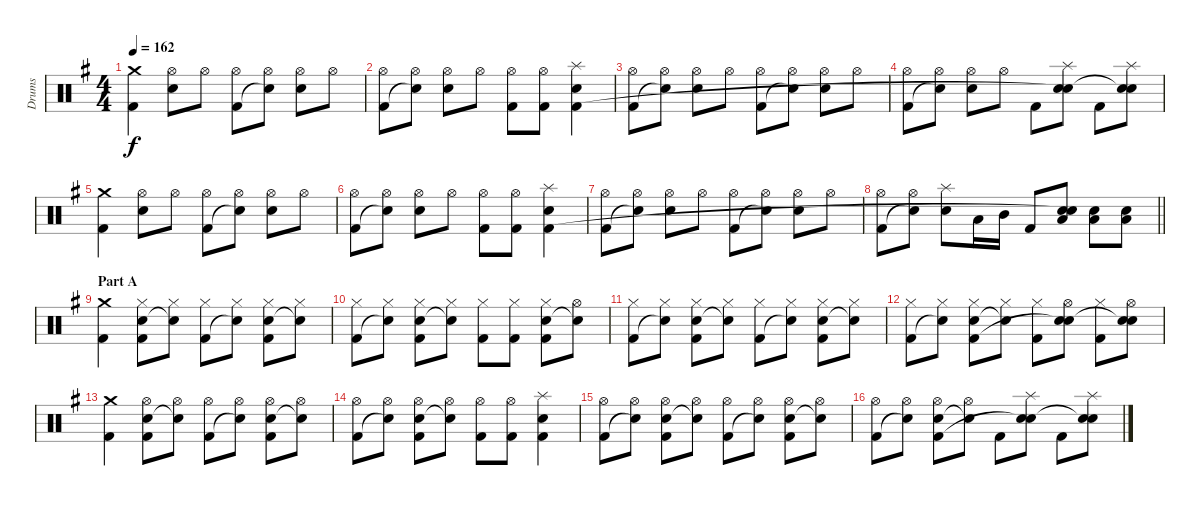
\track ("Drums" "Drums") {instrument percussion}
\staff {score}
\articulation defaults
\ts (4 4)
\tempo 162
\clef neutral
\ks g
("Crash medium (hit)" "Kick (hit) 2").4{dy f} ("Hi-Hat (open)" "Electric Snare (hit)").8 "Hi-Hat (open)".8 ("Hi-Hat (open)" "Kick (hit) 2").8 ("Hi-Hat (open)" "Snare (hit)"{t}).8 ("Hi-Hat (open)" "Electric Snare (hit)").8 "Hi-Hat (open)".8 |
("Hi-Hat (open)" "Kick (hit) 2").8 ("Hi-Hat (open)" "Snare (hit)"{t}).8 ("Hi-Hat (open)" "Electric Snare (hit)").8 "Hi-Hat (open)".8 ("Hi-Hat (open)" "Kick (hit) 2").8 ("Hi-Hat (open)" "Kick (hit) 2").8 ("Splash (hit)" "Electric Snare (hit)" "Kick (hit) 2").4 |
("Hi-Hat (open)" "Kick (hit) 2").8 ("Hi-Hat (open)" "Snare (hit)"{t}).8 ("Hi-Hat (open)" "Electric Snare (hit)").8 "Hi-Hat (open)".8 ("Hi-Hat (open)" "Kick (hit) 2").8 ("Hi-Hat (open)" "Snare (hit)"{t}).8 ("Hi-Hat (open)" "Electric Snare (hit)").8 "Hi-Hat (open)".8 |
("Hi-Hat (open)" "Kick (hit) 2").8 ("Hi-Hat (open)" "Snare (hit)"{t}).8 ("Hi-Hat (open)" "Electric Snare (hit)").8 "Hi-Hat (open)".8 "Kick (hit) 2".8 ("Splash (hit)" "Electric Snare (hit)" "Snare (hit)"{t}).8 "Kick (hit) 2".8 ("Splash (hit)" "Electric Snare (hit)" "Snare (hit)"{t}).8 |
("Crash medium (hit)" "Kick (hit) 2").4 ("Hi-Hat (open)" "Electric Snare (hit)").8 "Hi-Hat (open)".8 ("Hi-Hat (open)" "Kick (hit) 2").8 ("Hi-Hat (open)" "Snare (hit)"{t}).8 ("Hi-Hat (open)" "Electric Snare (hit)").8 "Hi-Hat (open)".8 |
("Hi-Hat (open)" "Kick (hit) 2").8 ("Hi-Hat (open)" "Snare (hit)"{t}).8 ("Hi-Hat (open)" "Electric Snare (hit)").8 "Hi-Hat (open)".8 ("Hi-Hat (open)" "Kick (hit) 2").8 ("Hi-Hat (open)" "Kick (hit) 2").8 ("Splash (hit)" "Electric Snare (hit)" "Kick (hit) 2").4 |
("Hi-Hat (open)" "Kick (hit) 2").8 ("Hi-Hat (open)" "Snare (hit)"{t}).8 ("Hi-Hat (open)" "Electric Snare (hit)").8 "Hi-Hat (open)".8 ("Hi-Hat (open)" "Kick (hit) 2").8 ("Hi-Hat (open)" "Snare (hit)"{t}).8 ("Hi-Hat (open)" "Electric Snare (hit)").8 "Hi-Hat (open)".8 |
\barLineRight lightlight
("Hi-Hat (open)" "Kick (hit) 2").8 ("Hi-Hat (open)" "Snare (hit)"{t}).8 ("Splash (hit)" "Electric Snare (hit)").8 "Low Tom (hit)".16 "Mid Tom (hit)".16 "Kick (hit) 2".8 ("Electric Snare (hit)" "Low Tom (hit)" "Snare (hit)"{t}).8 ("Electric Snare (hit)" "Low Tom (hit)").8 ("Electric Snare (hit)" "Low Tom (hit)").8 |
\section ("" "Part A")
("Crash medium (hit)" "Kick (hit) 2").4 ("Hi-Hat (closed)" "Electric Snare (hit)" "Kick (hit) 2").8 ("Hi-Hat (closed)" "Snare (hit)"{t}).8 ("Hi-Hat (closed)" "Kick (hit) 2").8 ("Hi-Hat (closed)" "Snare (hit)"{t}).8 ("Hi-Hat (closed)" "Electric Snare (hit)" "Kick (hit) 2").8 ("Hi-Hat (closed)" "Snare (hit)"{t}).8 |
("Hi-Hat (closed)" "Kick (hit) 2").8 ("Hi-Hat (closed)" "Snare (hit)"{t}).8 ("Hi-Hat (closed)" "Electric Snare (hit)" "Kick (hit) 2").8 ("Hi-Hat (closed)" "Snare (hit)"{t}).8 ("Hi-Hat (closed)" "Kick (hit) 2").8 ("Hi-Hat (closed)" "Kick (hit) 2").8 ("Hi-Hat (closed)" "Electric Snare (hit)" "Kick (hit) 2").8 ("Hi-Hat (open)" "Snare (hit)"{t}).8 |
("Hi-Hat (closed)" "Kick (hit) 2").8 ("Hi-Hat (closed)" "Snare (hit)"{t}).8 ("Hi-Hat (closed)" "Electric Snare (hit)" "Kick (hit) 2").8 ("Hi-Hat (closed)" "Snare (hit)"{t}).8 ("Hi-Hat (closed)" "Kick (hit) 2").8 ("Hi-Hat (closed)" "Snare (hit)"{t}).8 ("Hi-Hat (closed)" "Electric Snare (hit)" "Kick (hit) 2").8 ("Hi-Hat (closed)" "Snare (hit)"{t}).8 |
("Hi-Hat (closed)" "Kick (hit) 2").8 ("Hi-Hat (closed)" "Snare (hit)"{t}).8 ("Hi-Hat (closed)" "Electric Snare (hit)" "Kick (hit) 2").8 ("Hi-Hat (closed)" "Snare (hit)"{t}).8 ("Hi-Hat (closed)" "Kick (hit) 2").8 ("Hi-Hat (open)" "Electric Snare (hit)" "Snare (hit)"{t}).8 ("Hi-Hat (closed)" "Kick (hit) 2").8 ("Hi-Hat (open)" "Electric Snare (hit)" "Snare (hit)"{t}).8 |
("Crash medium (hit)" "Kick (hit) 2").4 ("Hi-Hat (open)" "Electric Snare (hit)" "Kick (hit) 2").8 ("Hi-Hat (open)" "Snare (hit)"{t}).8 ("Hi-Hat (open)" "Kick (hit) 2").8 ("Hi-Hat (open)" "Snare (hit)"{t}).8 ("Hi-Hat (open)" "Electric Snare (hit)" "Kick (hit) 2").8 ("Hi-Hat (open)" "Snare (hit)"{t}).8 |
("Hi-Hat (open)" "Kick (hit) 2").8 ("Hi-Hat (open)" "Snare (hit)"{t}).8 ("Hi-Hat (open)" "Electric Snare (hit)" "Kick (hit) 2").8 ("Hi-Hat (open)" "Snare (hit)"{t}).8 ("Hi-Hat (open)" "Kick (hit) 2").8 ("Hi-Hat (open)" "Kick (hit) 2").8 ("Splash (hit)" "Electric Snare (hit)" "Kick (hit) 2").4 |
("Hi-Hat (open)" "Kick (hit) 2").8 ("Hi-Hat (open)" "Snare (hit)"{t}).8 ("Hi-Hat (open)" "Electric Snare (hit)" "Kick (hit) 2").8 ("Hi-Hat (open)" "Snare (hit)"{t}).8 ("Hi-Hat (open)" "Kick (hit) 2").8 ("Hi-Hat (open)" "Snare (hit)"{t}).8 ("Hi-Hat (open)" "Electric Snare (hit)" "Kick (hit) 2").8 ("Hi-Hat (open)" "Snare (hit)"{t}).8 |
("Hi-Hat (open)" "Kick (hit) 2").8 ("Hi-Hat (open)" "Snare (hit)"{t}).8 ("Hi-Hat (open)" "Electric Snare (hit)" "Kick (hit) 2").8 ("Hi-Hat (open)" "Snare (hit)"{t}).8 "Kick (hit) 2".8 ("Splash (hit)" "Electric Snare (hit)" "Snare (hit)"{t}).8 "Kick (hit) 2".8 ("Splash (hit)" "Electric Snare (hit)" "Snare (hit)"{t}).8
